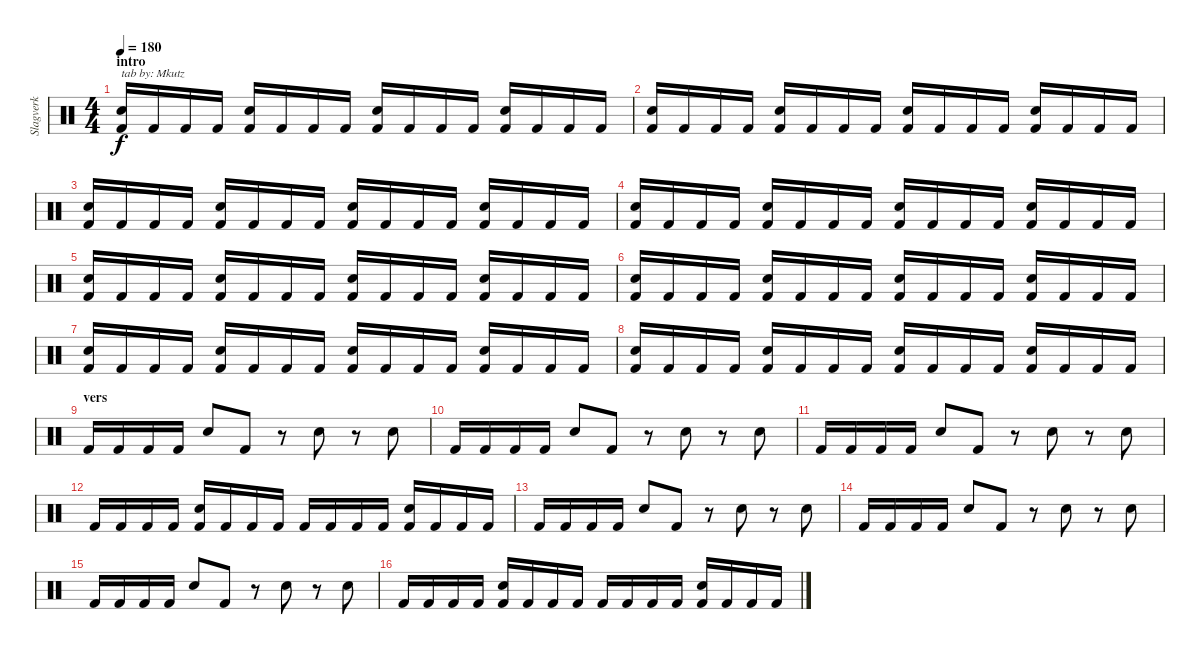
\track ("Slagverk" "Slagverk") {instrument percussion}
\staff {score}
\articulation defaults
\ts (4 4)
\section ("" "intro")
\tempo 180
\clef neutral
\ks c
("Electric Snare (hit)" "Kick (hit) 2").16{txt "tab by: Mkutz" dy f} "Kick (hit) 2".16 "Kick (hit) 2".16 "Kick (hit) 2".16 ("Electric Snare (hit)" "Kick (hit) 2").16 "Kick (hit) 2".16 "Kick (hit) 2".16 "Kick (hit) 2".16 ("Electric Snare (hit)" "Kick (hit) 2").16 "Kick (hit) 2".16 "Kick (hit) 2".16 "Kick (hit) 2".16 ("Electric Snare (hit)" "Kick (hit) 2").16 "Kick (hit) 2".16 "Kick (hit) 2".16 "Kick (hit) 2".16 |
("Electric Snare (hit)" "Kick (hit) 2").16 "Kick (hit) 2".16 "Kick (hit) 2".16 "Kick (hit) 2".16 ("Electric Snare (hit)" "Kick (hit) 2").16 "Kick (hit) 2".16 "Kick (hit) 2".16 "Kick (hit) 2".16 ("Electric Snare (hit)" "Kick (hit) 2").16 "Kick (hit) 2".16 "Kick (hit) 2".16 "Kick (hit) 2".16 ("Electric Snare (hit)" "Kick (hit) 2").16 "Kick (hit) 2".16 "Kick (hit) 2".16 "Kick (hit) 2".16 |
("Electric Snare (hit)" "Kick (hit) 2").16 "Kick (hit) 2".16 "Kick (hit) 2".16 "Kick (hit) 2".16 ("Electric Snare (hit)" "Kick (hit) 2").16 "Kick (hit) 2".16 "Kick (hit) 2".16 "Kick (hit) 2".16 ("Electric Snare (hit)" "Kick (hit) 2").16 "Kick (hit) 2".16 "Kick (hit) 2".16 "Kick (hit) 2".16 ("Electric Snare (hit)" "Kick (hit) 2").16 "Kick (hit) 2".16 "Kick (hit) 2".16 "Kick (hit) 2".16 |
("Electric Snare (hit)" "Kick (hit) 2").16 "Kick (hit) 2".16 "Kick (hit) 2".16 "Kick (hit) 2".16 ("Electric Snare (hit)" "Kick (hit) 2").16 "Kick (hit) 2".16 "Kick (hit) 2".16 "Kick (hit) 2".16 ("Electric Snare (hit)" "Kick (hit) 2").16 "Kick (hit) 2".16 "Kick (hit) 2".16 "Kick (hit) 2".16 ("Electric Snare (hit)" "Kick (hit) 2").16 "Kick (hit) 2".16 "Kick (hit) 2".16 "Kick (hit) 2".16 |
("Electric Snare (hit)" "Kick (hit) 2").16 "Kick (hit) 2".16 "Kick (hit) 2".16 "Kick (hit) 2".16 ("Electric Snare (hit)" "Kick (hit) 2").16 "Kick (hit) 2".16 "Kick (hit) 2".16 "Kick (hit) 2".16 ("Electric Snare (hit)" "Kick (hit) 2").16 "Kick (hit) 2".16 "Kick (hit) 2".16 "Kick (hit) 2".16 ("Electric Snare (hit)" "Kick (hit) 2").16 "Kick (hit) 2".16 "Kick (hit) 2".16 "Kick (hit) 2".16 |
("Electric Snare (hit)" "Kick (hit) 2").16 "Kick (hit) 2".16 "Kick (hit) 2".16 "Kick (hit) 2".16 ("Electric Snare (hit)" "Kick (hit) 2").16 "Kick (hit) 2".16 "Kick (hit) 2".16 "Kick (hit) 2".16 ("Electric Snare (hit)" "Kick (hit) 2").16 "Kick (hit) 2".16 "Kick (hit) 2".16 "Kick (hit) 2".16 ("Electric Snare (hit)" "Kick (hit) 2").16 "Kick (hit) 2".16 "Kick (hit) 2".16 "Kick (hit) 2".16 |
("Electric Snare (hit)" "Kick (hit) 2").16 "Kick (hit) 2".16 "Kick (hit) 2".16 "Kick (hit) 2".16 ("Electric Snare (hit)" "Kick (hit) 2").16 "Kick (hit) 2".16 "Kick (hit) 2".16 "Kick (hit) 2".16 ("Electric Snare (hit)" "Kick (hit) 2").16 "Kick (hit) 2".16 "Kick (hit) 2".16 "Kick (hit) 2".16 ("Electric Snare (hit)" "Kick (hit) 2").16 "Kick (hit) 2".16 "Kick (hit) 2".16 "Kick (hit) 2".16 |
("Electric Snare (hit)" "Kick (hit) 2").16 "Kick (hit) 2".16 "Kick (hit) 2".16 "Kick (hit) 2".16 ("Electric Snare (hit)" "Kick (hit) 2").16 "Kick (hit) 2".16 "Kick (hit) 2".16 "Kick (hit) 2".16 ("Electric Snare (hit)" "Kick (hit) 2").16 "Kick (hit) 2".16 "Kick (hit) 2".16 "Kick (hit) 2".16 ("Electric Snare (hit)" "Kick (hit) 2").16 "Kick (hit) 2".16 "Kick (hit) 2".16 "Kick (hit) 2".16 |
\section ("" "vers")
"Kick (hit) 2".16 "Kick (hit) 2".16 "Kick (hit) 2".16 "Kick (hit) 2".16 "Electric Snare (hit)".8 "Kick (hit) 2".8 r.8 "Electric Snare (hit)".8 r.8 "Electric Snare (hit)".8 |
"Kick (hit) 2".16 "Kick (hit) 2".16 "Kick (hit) 2".16 "Kick (hit) 2".16 "Electric Snare (hit)".8 "Kick (hit) 2".8 r.8 "Electric Snare (hit)".8 r.8 "Electric Snare (hit)".8 |
"Kick (hit) 2".16 "Kick (hit) 2".16 "Kick (hit) 2".16 "Kick (hit) 2".16 "Electric Snare (hit)".8 "Kick (hit) 2".8 r.8 "Electric Snare (hit)".8 r.8 "Electric Snare (hit)".8 |
"Kick (hit) 2".16 "Kick (hit) 2".16 "Kick (hit) 2".16 "Kick (hit) 2".16 ("Electric Snare (hit)" "Kick (hit) 2").16 "Kick (hit) 2".16 "Kick (hit) 2".16 "Kick (hit) 2".16 "Kick (hit) 2".16 "Kick (hit) 2".16 "Kick (hit) 2".16 "Kick (hit) 2".16 ("Electric Snare (hit)" "Kick (hit) 2").16 "Kick (hit) 2".16 "Kick (hit) 2".16 "Kick (hit) 2".16 |
"Kick (hit) 2".16 "Kick (hit) 2".16 "Kick (hit) 2".16 "Kick (hit) 2".16 "Electric Snare (hit)".8 "Kick (hit) 2".8 r.8 "Electric Snare (hit)".8 r.8 "Electric Snare (hit)".8 |
"Kick (hit) 2".16 "Kick (hit) 2".16 "Kick (hit) 2".16 "Kick (hit) 2".16 "Electric Snare (hit)".8 "Kick (hit) 2".8 r.8 "Electric Snare (hit)".8 r.8 "Electric Snare (hit)".8 |
"Kick (hit) 2".16 "Kick (hit) 2".16 "Kick (hit) 2".16 "Kick (hit) 2".16 "Electric Snare (hit)".8 "Kick (hit) 2".8 r.8 "Electric Snare (hit)".8 r.8 "Electric Snare (hit)".8 |
"Kick (hit) 2".16 "Kick (hit) 2".16 "Kick (hit) 2".16 "Kick (hit) 2".16 ("Electric Snare (hit)" "Kick (hit) 2").16 "Kick (hit) 2".16 "Kick (hit) 2".16 "Kick (hit) 2".16 "Kick (hit) 2".16 "Kick (hit) 2".16 "Kick (hit) 2".16 "Kick (hit) 2".16 ("Electric Snare (hit)" "Kick (hit) 2").16 "Kick (hit) 2".16 "Kick (hit) 2".16 "Kick (hit) 2".16
